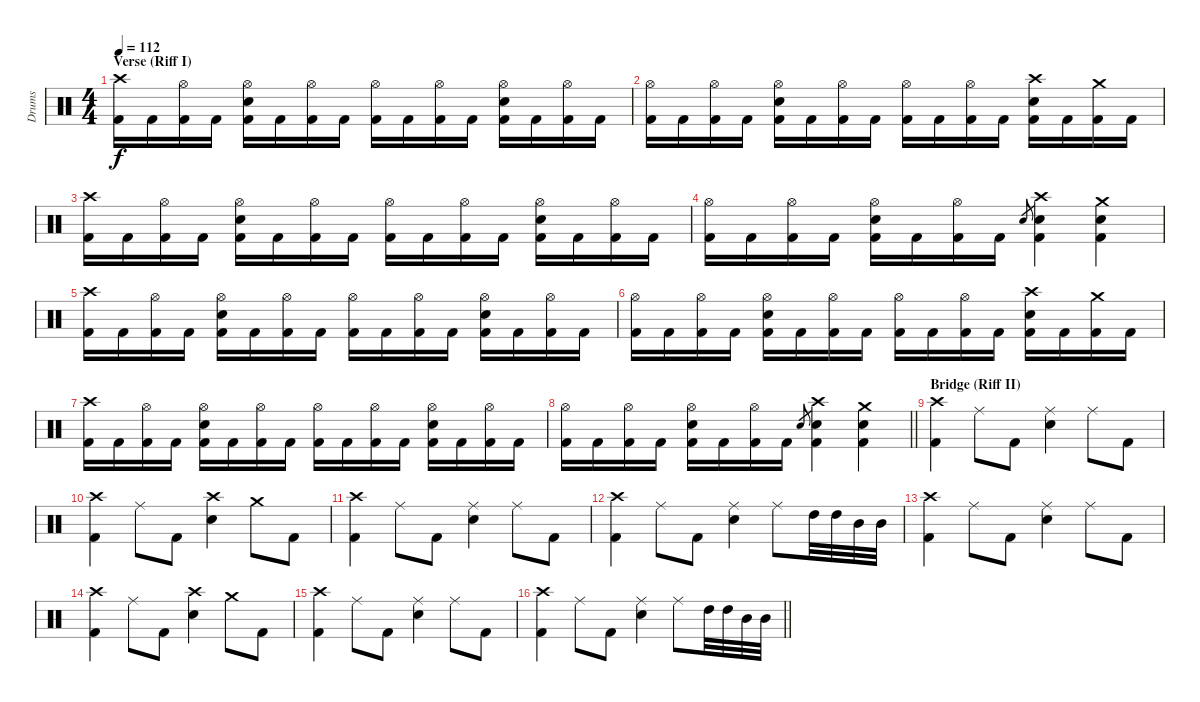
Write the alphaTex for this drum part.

\track ("Drums" "Drums") {instrument percussion}
\staff {score}
\articulation defaults
\ts (4 4)
\section ("" "Verse (Riff I)")
\tempo 112
\clef neutral
\ks c
("Crash high (hit)" "Kick (hit) 2").16{dy f} "Kick (hit) 2".16 ("Hi-Hat (open)" "Kick (hit) 2").16 "Kick (hit) 2".16 ("Hi-Hat (open)" "Electric Snare (hit)" "Kick (hit) 2").16 "Kick (hit) 2".16 ("Hi-Hat (open)" "Kick (hit) 2").16 "Kick (hit) 2".16 ("Hi-Hat (open)" "Kick (hit) 2").16 "Kick (hit) 2".16 ("Hi-Hat (open)" "Kick (hit) 2").16 "Kick (hit) 2".16 ("Hi-Hat (open)" "Electric Snare (hit)" "Kick (hit) 2").16 "Kick (hit) 2".16 ("Hi-Hat (open)" "Kick (hit) 2").16 "Kick (hit) 2".16 |
("Hi-Hat (open)" "Kick (hit) 2").16 "Kick (hit) 2".16 ("Hi-Hat (open)" "Kick (hit) 2").16 "Kick (hit) 2".16 ("Hi-Hat (open)" "Electric Snare (hit)" "Kick (hit) 2").16 "Kick (hit) 2".16 ("Hi-Hat (open)" "Kick (hit) 2").16 "Kick (hit) 2".16 ("Hi-Hat (open)" "Kick (hit) 2").16 "Kick (hit) 2".16 ("Hi-Hat (open)" "Kick (hit) 2").16 "Kick (hit) 2".16 ("Crash high (hit)" "Electric Snare (hit)" "Kick (hit) 2").16 "Kick (hit) 2".16 ("Crash medium (hit)" "Kick (hit) 2").16 "Kick (hit) 2".16 |
("Crash high (hit)" "Kick (hit) 2").16 "Kick (hit) 2".16 ("Hi-Hat (open)" "Kick (hit) 2").16 "Kick (hit) 2".16 ("Hi-Hat (open)" "Electric Snare (hit)" "Kick (hit) 2").16 "Kick (hit) 2".16 ("Hi-Hat (open)" "Kick (hit) 2").16 "Kick (hit) 2".16 ("Hi-Hat (open)" "Kick (hit) 2").16 "Kick (hit) 2".16 ("Hi-Hat (open)" "Kick (hit) 2").16 "Kick (hit) 2".16 ("Hi-Hat (open)" "Electric Snare (hit)" "Kick (hit) 2").16 "Kick (hit) 2".16 ("Hi-Hat (open)" "Kick (hit) 2").16 "Kick (hit) 2".16 |
("Hi-Hat (open)" "Kick (hit) 2").16 "Kick (hit) 2".16 ("Hi-Hat (open)" "Kick (hit) 2").16 "Kick (hit) 2".16 ("Hi-Hat (open)" "Electric Snare (hit)" "Kick (hit) 2").16 "Kick (hit) 2".16 ("Hi-Hat (open)" "Kick (hit) 2").16 "Kick (hit) 2".16 "Electric Snare (hit)".8{gr} ("Crash high (hit)" "Electric Snare (hit)" "Kick (hit) 2").4 ("Crash medium (hit)" "Electric Snare (hit)" "Kick (hit) 2").4 |
("Crash high (hit)" "Kick (hit) 2").16 "Kick (hit) 2".16 ("Hi-Hat (open)" "Kick (hit) 2").16 "Kick (hit) 2".16 ("Hi-Hat (open)" "Electric Snare (hit)" "Kick (hit) 2").16 "Kick (hit) 2".16 ("Hi-Hat (open)" "Kick (hit) 2").16 "Kick (hit) 2".16 ("Hi-Hat (open)" "Kick (hit) 2").16 "Kick (hit) 2".16 ("Hi-Hat (open)" "Kick (hit) 2").16 "Kick (hit) 2".16 ("Hi-Hat (open)" "Electric Snare (hit)" "Kick (hit) 2").16 "Kick (hit) 2".16 ("Hi-Hat (open)" "Kick (hit) 2").16 "Kick (hit) 2".16 |
("Hi-Hat (open)" "Kick (hit) 2").16 "Kick (hit) 2".16 ("Hi-Hat (open)" "Kick (hit) 2").16 "Kick (hit) 2".16 ("Hi-Hat (open)" "Electric Snare (hit)" "Kick (hit) 2").16 "Kick (hit) 2".16 ("Hi-Hat (open)" "Kick (hit) 2").16 "Kick (hit) 2".16 ("Hi-Hat (open)" "Kick (hit) 2").16 "Kick (hit) 2".16 ("Hi-Hat (open)" "Kick (hit) 2").16 "Kick (hit) 2".16 ("Crash high (hit)" "Electric Snare (hit)" "Kick (hit) 2").16 "Kick (hit) 2".16 ("Crash medium (hit)" "Kick (hit) 2").16 "Kick (hit) 2".16 |
("Crash high (hit)" "Kick (hit) 2").16 "Kick (hit) 2".16 ("Hi-Hat (open)" "Kick (hit) 2").16 "Kick (hit) 2".16 ("Hi-Hat (open)" "Electric Snare (hit)" "Kick (hit) 2").16 "Kick (hit) 2".16 ("Hi-Hat (open)" "Kick (hit) 2").16 "Kick (hit) 2".16 ("Hi-Hat (open)" "Kick (hit) 2").16 "Kick (hit) 2".16 ("Hi-Hat (open)" "Kick (hit) 2").16 "Kick (hit) 2".16 ("Hi-Hat (open)" "Electric Snare (hit)" "Kick (hit) 2").16 "Kick (hit) 2".16 ("Hi-Hat (open)" "Kick (hit) 2").16 "Kick (hit) 2".16 |
\barLineRight lightlight
("Hi-Hat (open)" "Kick (hit) 2").16 "Kick (hit) 2".16 ("Hi-Hat (open)" "Kick (hit) 2").16 "Kick (hit) 2".16 ("Hi-Hat (open)" "Electric Snare (hit)" "Kick (hit) 2").16 "Kick (hit) 2".16 ("Hi-Hat (open)" "Kick (hit) 2").16 "Kick (hit) 2".16 "Electric Snare (hit)".8{gr} ("Crash high (hit)" "Electric Snare (hit)" "Kick (hit) 2").4 ("Crash medium (hit)" "Electric Snare (hit)" "Kick (hit) 2").4 |
\section ("" "Bridge (Riff II)")
("Crash high (hit)" "Kick (hit) 2").4 "Ride (middle)".8 "Kick (hit) 2".8 ("Ride (middle)" "Electric Snare (hit)").4 "Ride (middle)".8 "Kick (hit) 2".8 |
("Crash high (hit)" "Kick (hit) 2").4 "Ride (middle)".8 "Kick (hit) 2".8 ("Crash high (hit)" "Electric Snare (hit)").4 "Crash medium (hit)".8 "Kick (hit) 2".8 |
("Crash high (hit)" "Kick (hit) 2").4 "Ride (middle)".8 "Kick (hit) 2".8 ("Ride (middle)" "Electric Snare (hit)").4 "Ride (middle)".8 "Kick (hit) 2".8 |
("Crash high (hit)" "Kick (hit) 2").4 "Ride (middle)".8 "Kick (hit) 2".8 ("Ride (middle)" "Electric Snare (hit)").4 "Ride (middle)".8 "High Tom (hit)".32 "High Tom (hit)".32 "Mid Tom (hit)".32 "Mid Tom (hit)".32 |
("Crash high (hit)" "Kick (hit) 2").4 "Ride (middle)".8 "Kick (hit) 2".8 ("Ride (middle)" "Electric Snare (hit)").4 "Ride (middle)".8 "Kick (hit) 2".8 |
("Crash high (hit)" "Kick (hit) 2").4 "Ride (middle)".8 "Kick (hit) 2".8 ("Crash high (hit)" "Electric Snare (hit)").4 "Crash medium (hit)".8 "Kick (hit) 2".8 |
("Crash high (hit)" "Kick (hit) 2").4 "Ride (middle)".8 "Kick (hit) 2".8 ("Ride (middle)" "Electric Snare (hit)").4 "Ride (middle)".8 "Kick (hit) 2".8 |
\barLineRight lightlight
("Crash high (hit)" "Kick (hit) 2").4 "Ride (middle)".8 "Kick (hit) 2".8 ("Ride (middle)" "Electric Snare (hit)").4 "Ride (middle)".8 "High Tom (hit)".32 "High Tom (hit)".32 "Mid Tom (hit)".32 "Mid Tom (hit)".32
